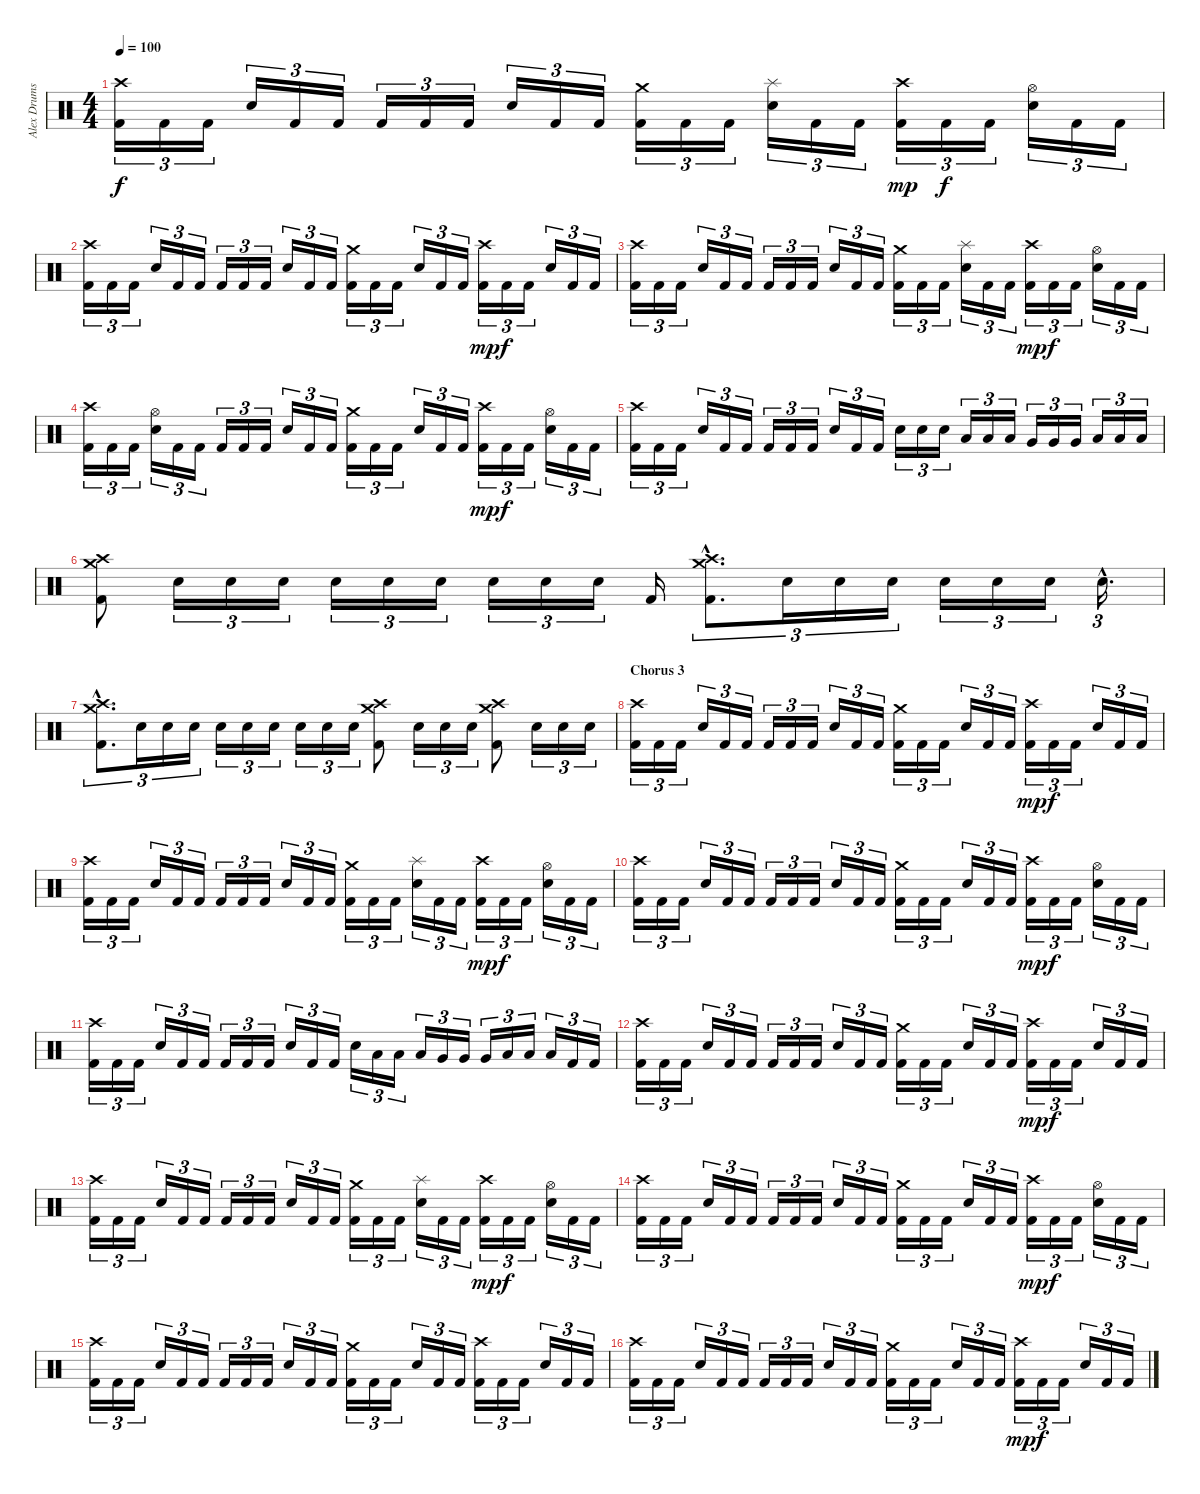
\track ("Alex Drums" "Alex Drums") {instrument percussion}
\staff {score}
\articulation defaults
\ts (4 4)
\tempo 100
\clef neutral
\ks c
("Crash high (hit)" "Kick (hit) 2").16{tu (3 2) dy f} "Kick (hit) 2".16{tu (3 2)} "Kick (hit) 2".16{tu (3 2)} "Electric Snare (hit)".16{tu (3 2)} "Kick (hit) 2".16{tu (3 2)} "Kick (hit) 2".16{tu (3 2)} "Kick (hit) 2".16{tu (3 2)} "Kick (hit) 2".16{tu (3 2)} "Kick (hit) 2".16{tu (3 2)} "Electric Snare (hit)".16{tu (3 2)} "Kick (hit) 2".16{tu (3 2)} "Kick (hit) 2".16{tu (3 2)} ("Crash medium (hit)" "Kick (hit) 2").16{tu (3 2)} "Kick (hit) 2".16{tu (3 2)} "Kick (hit) 2".16{tu (3 2)} ("Splash (hit)" "Electric Snare (hit)").16{tu (3 2)} "Kick (hit) 2".16{tu (3 2)} "Kick (hit) 2".16{tu (3 2)} ("Crash high (hit)" "Kick (hit) 2").16{tu (3 2) dy mp} "Kick (hit) 2".16{tu (3 2) dy f} "Kick (hit) 2".16{tu (3 2)} ("Hi-Hat (open)" "Electric Snare (hit)").16{tu (3 2)} "Kick (hit) 2".16{tu (3 2)} "Kick (hit) 2".16{tu (3 2)} |
("Crash high (hit)" "Kick (hit) 2").16{tu (3 2)} "Kick (hit) 2".16{tu (3 2)} "Kick (hit) 2".16{tu (3 2)} "Electric Snare (hit)".16{tu (3 2)} "Kick (hit) 2".16{tu (3 2)} "Kick (hit) 2".16{tu (3 2)} "Kick (hit) 2".16{tu (3 2)} "Kick (hit) 2".16{tu (3 2)} "Kick (hit) 2".16{tu (3 2)} "Electric Snare (hit)".16{tu (3 2)} "Kick (hit) 2".16{tu (3 2)} "Kick (hit) 2".16{tu (3 2)} ("Crash medium (hit)" "Kick (hit) 2").16{tu (3 2)} "Kick (hit) 2".16{tu (3 2)} "Kick (hit) 2".16{tu (3 2)} "Electric Snare (hit)".16{tu (3 2)} "Kick (hit) 2".16{tu (3 2)} "Kick (hit) 2".16{tu (3 2)} ("Crash high (hit)" "Kick (hit) 2").16{tu (3 2) dy mp} "Kick (hit) 2".16{tu (3 2) dy f} "Kick (hit) 2".16{tu (3 2)} "Electric Snare (hit)".16{tu (3 2)} "Kick (hit) 2".16{tu (3 2)} "Kick (hit) 2".16{tu (3 2)} |
("Crash high (hit)" "Kick (hit) 2").16{tu (3 2)} "Kick (hit) 2".16{tu (3 2)} "Kick (hit) 2".16{tu (3 2)} "Electric Snare (hit)".16{tu (3 2)} "Kick (hit) 2".16{tu (3 2)} "Kick (hit) 2".16{tu (3 2)} "Kick (hit) 2".16{tu (3 2)} "Kick (hit) 2".16{tu (3 2)} "Kick (hit) 2".16{tu (3 2)} "Electric Snare (hit)".16{tu (3 2)} "Kick (hit) 2".16{tu (3 2)} "Kick (hit) 2".16{tu (3 2)} ("Crash medium (hit)" "Kick (hit) 2").16{tu (3 2)} "Kick (hit) 2".16{tu (3 2)} "Kick (hit) 2".16{tu (3 2)} ("Splash (hit)" "Electric Snare (hit)").16{tu (3 2)} "Kick (hit) 2".16{tu (3 2)} "Kick (hit) 2".16{tu (3 2)} ("Crash high (hit)" "Kick (hit) 2").16{tu (3 2) dy mp} "Kick (hit) 2".16{tu (3 2) dy f} "Kick (hit) 2".16{tu (3 2)} ("Hi-Hat (open)" "Electric Snare (hit)").16{tu (3 2)} "Kick (hit) 2".16{tu (3 2)} "Kick (hit) 2".16{tu (3 2)} |
("Crash high (hit)" "Kick (hit) 2").16{tu (3 2)} "Kick (hit) 2".16{tu (3 2)} "Kick (hit) 2".16{tu (3 2)} ("Hi-Hat (open)" "Electric Snare (hit)").16{tu (3 2)} "Kick (hit) 2".16{tu (3 2)} "Kick (hit) 2".16{tu (3 2)} "Kick (hit) 2".16{tu (3 2)} "Kick (hit) 2".16{tu (3 2)} "Kick (hit) 2".16{tu (3 2)} "Electric Snare (hit)".16{tu (3 2)} "Kick (hit) 2".16{tu (3 2)} "Kick (hit) 2".16{tu (3 2)} ("Crash medium (hit)" "Kick (hit) 2").16{tu (3 2)} "Kick (hit) 2".16{tu (3 2)} "Kick (hit) 2".16{tu (3 2)} "Electric Snare (hit)".16{tu (3 2)} "Kick (hit) 2".16{tu (3 2)} "Kick (hit) 2".16{tu (3 2)} ("Crash high (hit)" "Kick (hit) 2").16{tu (3 2) dy mp} "Kick (hit) 2".16{tu (3 2) dy f} "Kick (hit) 2".16{tu (3 2)} ("Hi-Hat (open)" "Electric Snare (hit)").16{tu (3 2)} "Kick (hit) 2".16{tu (3 2)} "Kick (hit) 2".16{tu (3 2)} |
("Crash high (hit)" "Kick (hit) 2").16{tu (3 2)} "Kick (hit) 2".16{tu (3 2)} "Kick (hit) 2".16{tu (3 2)} "Electric Snare (hit)".16{tu (3 2)} "Kick (hit) 2".16{tu (3 2)} "Kick (hit) 2".16{tu (3 2)} "Kick (hit) 2".16{tu (3 2)} "Kick (hit) 2".16{tu (3 2)} "Kick (hit) 2".16{tu (3 2)} "Electric Snare (hit)".16{tu (3 2)} "Kick (hit) 2".16{tu (3 2)} "Kick (hit) 2".16{tu (3 2)} "Electric Snare (hit)".16{tu (3 2)} "Electric Snare (hit)".16{tu (3 2)} "Electric Snare (hit)".16{tu (3 2)} "Low Tom (hit)".16{tu (3 2)} "Low Tom (hit)".16{tu (3 2)} "Low Tom (hit)".16{tu (3 2)} "Very Low Tom (hit)".16{tu (3 2)} "Very Low Tom (hit)".16{tu (3 2)} "Very Low Tom (hit)".16{tu (3 2)} "Low Floor Tom (hit)".16{tu (3 2)} "Low Floor Tom (hit)".16{tu (3 2)} "Low Floor Tom (hit)".16{tu (3 2)} |
("Crash high (hit)" "Crash medium (hit)" "Kick (hit) 2").8 "Electric Snare (hit)".16{tu (3 2)} "Electric Snare (hit)".16{tu (3 2)} "Electric Snare (hit)".16{tu (3 2)} "Electric Snare (hit)".16{tu (3 2)} "Electric Snare (hit)".16{tu (3 2)} "Electric Snare (hit)".16{tu (3 2)} "Electric Snare (hit)".16{tu (3 2)} "Electric Snare (hit)".16{tu (3 2)} "Electric Snare (hit)".16{tu (3 2)} "Kick (hit) 2".16 ("Crash high (hit)"{hac} "Crash medium (hit)"{hac} "Kick (hit) 2"{hac}).8{d tu (3 2)} "Electric Snare (hit)".16{tu (3 2)} "Electric Snare (hit)".16{tu (3 2)} "Electric Snare (hit)".16{tu (3 2)} "Electric Snare (hit)".16{tu (3 2)} "Electric Snare (hit)".16{tu (3 2)} "Electric Snare (hit)".16{tu (3 2)} "Electric Snare (hit)"{hac}.16{d tu (3 2)} |
("Crash high (hit)"{hac} "Crash medium (hit)"{hac} "Kick (hit) 2"{hac}).8{d tu (3 2)} "Electric Snare (hit)".16{tu (3 2)} "Electric Snare (hit)".16{tu (3 2)} "Electric Snare (hit)".16{tu (3 2)} "Electric Snare (hit)".16{tu (3 2)} "Electric Snare (hit)".16{tu (3 2)} "Electric Snare (hit)".16{tu (3 2)} "Electric Snare (hit)".16{tu (3 2)} "Electric Snare (hit)".16{tu (3 2)} "Electric Snare (hit)".16{tu (3 2)} ("Crash high (hit)" "Crash medium (hit)" "Kick (hit) 2").8 "Electric Snare (hit)".16{tu (3 2)} "Electric Snare (hit)".16{tu (3 2)} "Electric Snare (hit)".16{tu (3 2)} ("Crash high (hit)" "Crash medium (hit)" "Kick (hit) 2").8 "Electric Snare (hit)".16{tu (3 2)} "Electric Snare (hit)".16{tu (3 2)} "Electric Snare (hit)".16{tu (3 2)} |
\section ("" "Chorus 3")
("Crash high (hit)" "Kick (hit) 2").16{tu (3 2)} "Kick (hit) 2".16{tu (3 2)} "Kick (hit) 2".16{tu (3 2)} "Electric Snare (hit)".16{tu (3 2)} "Kick (hit) 2".16{tu (3 2)} "Kick (hit) 2".16{tu (3 2)} "Kick (hit) 2".16{tu (3 2)} "Kick (hit) 2".16{tu (3 2)} "Kick (hit) 2".16{tu (3 2)} "Electric Snare (hit)".16{tu (3 2)} "Kick (hit) 2".16{tu (3 2)} "Kick (hit) 2".16{tu (3 2)} ("Crash medium (hit)" "Kick (hit) 2").16{tu (3 2)} "Kick (hit) 2".16{tu (3 2)} "Kick (hit) 2".16{tu (3 2)} "Electric Snare (hit)".16{tu (3 2)} "Kick (hit) 2".16{tu (3 2)} "Kick (hit) 2".16{tu (3 2)} ("Crash high (hit)" "Kick (hit) 2").16{tu (3 2) dy mp} "Kick (hit) 2".16{tu (3 2) dy f} "Kick (hit) 2".16{tu (3 2)} "Electric Snare (hit)".16{tu (3 2)} "Kick (hit) 2".16{tu (3 2)} "Kick (hit) 2".16{tu (3 2)} |
("Crash high (hit)" "Kick (hit) 2").16{tu (3 2)} "Kick (hit) 2".16{tu (3 2)} "Kick (hit) 2".16{tu (3 2)} "Electric Snare (hit)".16{tu (3 2)} "Kick (hit) 2".16{tu (3 2)} "Kick (hit) 2".16{tu (3 2)} "Kick (hit) 2".16{tu (3 2)} "Kick (hit) 2".16{tu (3 2)} "Kick (hit) 2".16{tu (3 2)} "Electric Snare (hit)".16{tu (3 2)} "Kick (hit) 2".16{tu (3 2)} "Kick (hit) 2".16{tu (3 2)} ("Crash medium (hit)" "Kick (hit) 2").16{tu (3 2)} "Kick (hit) 2".16{tu (3 2)} "Kick (hit) 2".16{tu (3 2)} ("Splash (hit)" "Electric Snare (hit)").16{tu (3 2)} "Kick (hit) 2".16{tu (3 2)} "Kick (hit) 2".16{tu (3 2)} ("Crash high (hit)" "Kick (hit) 2").16{tu (3 2) dy mp} "Kick (hit) 2".16{tu (3 2) dy f} "Kick (hit) 2".16{tu (3 2)} ("Hi-Hat (open)" "Electric Snare (hit)").16{tu (3 2)} "Kick (hit) 2".16{tu (3 2)} "Kick (hit) 2".16{tu (3 2)} |
("Crash high (hit)" "Kick (hit) 2").16{tu (3 2)} "Kick (hit) 2".16{tu (3 2)} "Kick (hit) 2".16{tu (3 2)} "Electric Snare (hit)".16{tu (3 2)} "Kick (hit) 2".16{tu (3 2)} "Kick (hit) 2".16{tu (3 2)} "Kick (hit) 2".16{tu (3 2)} "Kick (hit) 2".16{tu (3 2)} "Kick (hit) 2".16{tu (3 2)} "Electric Snare (hit)".16{tu (3 2)} "Kick (hit) 2".16{tu (3 2)} "Kick (hit) 2".16{tu (3 2)} ("Crash medium (hit)" "Kick (hit) 2").16{tu (3 2)} "Kick (hit) 2".16{tu (3 2)} "Kick (hit) 2".16{tu (3 2)} "Electric Snare (hit)".16{tu (3 2)} "Kick (hit) 2".16{tu (3 2)} "Kick (hit) 2".16{tu (3 2)} ("Crash high (hit)" "Kick (hit) 2").16{tu (3 2) dy mp} "Kick (hit) 2".16{tu (3 2) dy f} "Kick (hit) 2".16{tu (3 2)} ("Hi-Hat (open)" "Electric Snare (hit)").16{tu (3 2)} "Kick (hit) 2".16{tu (3 2)} "Kick (hit) 2".16{tu (3 2)} |
("Crash high (hit)" "Kick (hit) 2").16{tu (3 2)} "Kick (hit) 2".16{tu (3 2)} "Kick (hit) 2".16{tu (3 2)} "Electric Snare (hit)".16{tu (3 2)} "Kick (hit) 2".16{tu (3 2)} "Kick (hit) 2".16{tu (3 2)} "Kick (hit) 2".16{tu (3 2)} "Kick (hit) 2".16{tu (3 2)} "Kick (hit) 2".16{tu (3 2)} "Electric Snare (hit)".16{tu (3 2)} "Kick (hit) 2".16{tu (3 2)} "Kick (hit) 2".16{tu (3 2)} "Electric Snare (hit)".16{tu (3 2)} "Low Tom (hit)".16{tu (3 2)} "Low Tom (hit)".16{tu (3 2)} "Low Tom (hit)".16{tu (3 2)} "Very Low Tom (hit)".16{tu (3 2)} "Very Low Tom (hit)".16{tu (3 2)} "Very Low Tom (hit)".16{tu (3 2)} "Low Floor Tom (hit)".16{tu (3 2)} "Low Floor Tom (hit)".16{tu (3 2)} "Low Floor Tom (hit)".16{tu (3 2)} "Kick (hit) 2".16{tu (3 2)} "Kick (hit) 2".16{tu (3 2)} |
("Crash high (hit)" "Kick (hit) 2").16{tu (3 2)} "Kick (hit) 2".16{tu (3 2)} "Kick (hit) 2".16{tu (3 2)} "Electric Snare (hit)".16{tu (3 2)} "Kick (hit) 2".16{tu (3 2)} "Kick (hit) 2".16{tu (3 2)} "Kick (hit) 2".16{tu (3 2)} "Kick (hit) 2".16{tu (3 2)} "Kick (hit) 2".16{tu (3 2)} "Electric Snare (hit)".16{tu (3 2)} "Kick (hit) 2".16{tu (3 2)} "Kick (hit) 2".16{tu (3 2)} ("Crash medium (hit)" "Kick (hit) 2").16{tu (3 2)} "Kick (hit) 2".16{tu (3 2)} "Kick (hit) 2".16{tu (3 2)} "Electric Snare (hit)".16{tu (3 2)} "Kick (hit) 2".16{tu (3 2)} "Kick (hit) 2".16{tu (3 2)} ("Crash high (hit)" "Kick (hit) 2").16{tu (3 2) dy mp} "Kick (hit) 2".16{tu (3 2) dy f} "Kick (hit) 2".16{tu (3 2)} "Electric Snare (hit)".16{tu (3 2)} "Kick (hit) 2".16{tu (3 2)} "Kick (hit) 2".16{tu (3 2)} |
("Crash high (hit)" "Kick (hit) 2").16{tu (3 2)} "Kick (hit) 2".16{tu (3 2)} "Kick (hit) 2".16{tu (3 2)} "Electric Snare (hit)".16{tu (3 2)} "Kick (hit) 2".16{tu (3 2)} "Kick (hit) 2".16{tu (3 2)} "Kick (hit) 2".16{tu (3 2)} "Kick (hit) 2".16{tu (3 2)} "Kick (hit) 2".16{tu (3 2)} "Electric Snare (hit)".16{tu (3 2)} "Kick (hit) 2".16{tu (3 2)} "Kick (hit) 2".16{tu (3 2)} ("Crash medium (hit)" "Kick (hit) 2").16{tu (3 2)} "Kick (hit) 2".16{tu (3 2)} "Kick (hit) 2".16{tu (3 2)} ("Splash (hit)" "Electric Snare (hit)").16{tu (3 2)} "Kick (hit) 2".16{tu (3 2)} "Kick (hit) 2".16{tu (3 2)} ("Crash high (hit)" "Kick (hit) 2").16{tu (3 2) dy mp} "Kick (hit) 2".16{tu (3 2) dy f} "Kick (hit) 2".16{tu (3 2)} ("Hi-Hat (open)" "Electric Snare (hit)").16{tu (3 2)} "Kick (hit) 2".16{tu (3 2)} "Kick (hit) 2".16{tu (3 2)} |
("Crash high (hit)" "Kick (hit) 2").16{tu (3 2)} "Kick (hit) 2".16{tu (3 2)} "Kick (hit) 2".16{tu (3 2)} "Electric Snare (hit)".16{tu (3 2)} "Kick (hit) 2".16{tu (3 2)} "Kick (hit) 2".16{tu (3 2)} "Kick (hit) 2".16{tu (3 2)} "Kick (hit) 2".16{tu (3 2)} "Kick (hit) 2".16{tu (3 2)} "Electric Snare (hit)".16{tu (3 2)} "Kick (hit) 2".16{tu (3 2)} "Kick (hit) 2".16{tu (3 2)} ("Crash medium (hit)" "Kick (hit) 2").16{tu (3 2)} "Kick (hit) 2".16{tu (3 2)} "Kick (hit) 2".16{tu (3 2)} "Electric Snare (hit)".16{tu (3 2)} "Kick (hit) 2".16{tu (3 2)} "Kick (hit) 2".16{tu (3 2)} ("Crash high (hit)" "Kick (hit) 2").16{tu (3 2) dy mp} "Kick (hit) 2".16{tu (3 2) dy f} "Kick (hit) 2".16{tu (3 2)} ("Hi-Hat (open)" "Electric Snare (hit)").16{tu (3 2)} "Kick (hit) 2".16{tu (3 2)} "Kick (hit) 2".16{tu (3 2)} |
("Crash high (hit)" "Kick (hit) 2").16{tu (3 2)} "Kick (hit) 2".16{tu (3 2)} "Kick (hit) 2".16{tu (3 2)} "Electric Snare (hit)".16{tu (3 2)} "Kick (hit) 2".16{tu (3 2)} "Kick (hit) 2".16{tu (3 2)} "Kick (hit) 2".16{tu (3 2)} "Kick (hit) 2".16{tu (3 2)} "Kick (hit) 2".16{tu (3 2)} "Electric Snare (hit)".16{tu (3 2)} "Kick (hit) 2".16{tu (3 2)} "Kick (hit) 2".16{tu (3 2)} ("Crash medium (hit)" "Kick (hit) 2").16{tu (3 2)} "Kick (hit) 2".16{tu (3 2)} "Kick (hit) 2".16{tu (3 2)} "Electric Snare (hit)".16{tu (3 2)} "Kick (hit) 2".16{tu (3 2)} "Kick (hit) 2".16{tu (3 2)} ("Crash high (hit)" "Kick (hit) 2").16{tu (3 2)} "Kick (hit) 2".16{tu (3 2)} "Kick (hit) 2".16{tu (3 2)} "Electric Snare (hit)".16{tu (3 2)} "Kick (hit) 2".16{tu (3 2)} "Kick (hit) 2".16{tu (3 2)} |
("Crash high (hit)" "Kick (hit) 2").16{tu (3 2)} "Kick (hit) 2".16{tu (3 2)} "Kick (hit) 2".16{tu (3 2)} "Electric Snare (hit)".16{tu (3 2)} "Kick (hit) 2".16{tu (3 2)} "Kick (hit) 2".16{tu (3 2)} "Kick (hit) 2".16{tu (3 2)} "Kick (hit) 2".16{tu (3 2)} "Kick (hit) 2".16{tu (3 2)} "Electric Snare (hit)".16{tu (3 2)} "Kick (hit) 2".16{tu (3 2)} "Kick (hit) 2".16{tu (3 2)} ("Crash medium (hit)" "Kick (hit) 2").16{tu (3 2)} "Kick (hit) 2".16{tu (3 2)} "Kick (hit) 2".16{tu (3 2)} "Electric Snare (hit)".16{tu (3 2)} "Kick (hit) 2".16{tu (3 2)} "Kick (hit) 2".16{tu (3 2)} ("Crash high (hit)" "Kick (hit) 2").16{tu (3 2) dy mp} "Kick (hit) 2".16{tu (3 2) dy f} "Kick (hit) 2".16{tu (3 2)} "Electric Snare (hit)".16{tu (3 2)} "Kick (hit) 2".16{tu (3 2)} "Kick (hit) 2".16{tu (3 2)}
